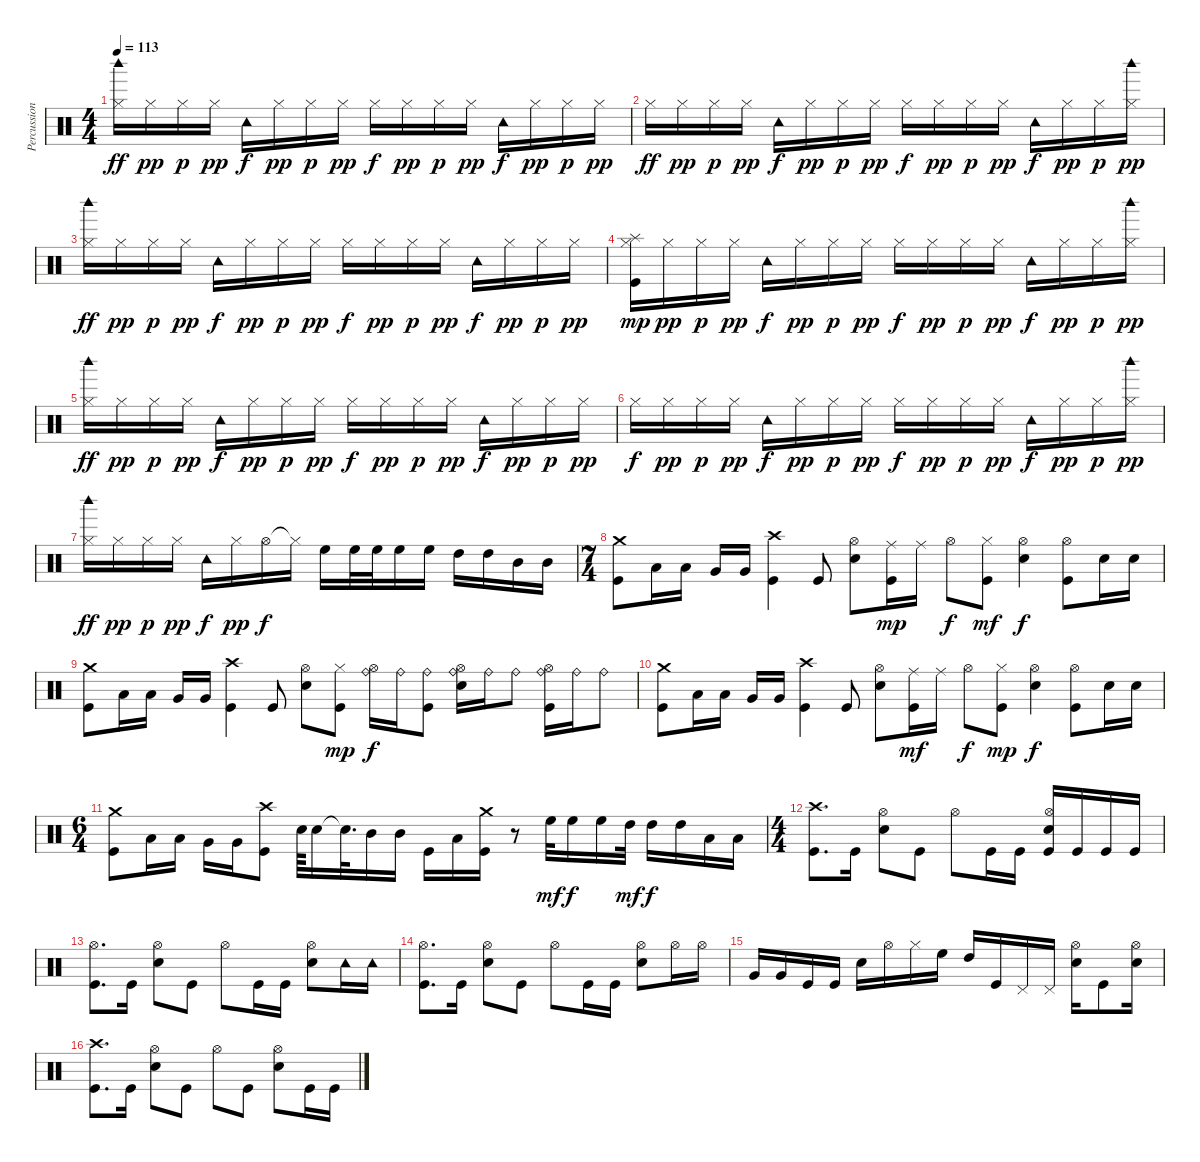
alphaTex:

\track ("Percussioni" "Percussion") {instrument percussion}
\staff {score}
\articulation defaults
\ts (4 4)
\tempo 113
\clef neutral
\ks c
("Woodblock high (hit)" "Hi-Hat (closed)").16{dy ff} "Hi-Hat (closed)".16{dy pp} "Hi-Hat (closed)".16{dy p} "Hi-Hat (closed)".16{dy pp} "Tambourine (hit)".16{dy f} "Hi-Hat (closed)".16{dy pp} "Hi-Hat (closed)".16{dy p} "Hi-Hat (closed)".16{dy pp} "Hi-Hat (closed)".16{dy f} "Hi-Hat (closed)".16{dy pp} "Hi-Hat (closed)".16{dy p} "Hi-Hat (closed)".16{dy pp} "Tambourine (hit)".16{dy f} "Hi-Hat (closed)".16{dy pp} "Hi-Hat (closed)".16{dy p} "Hi-Hat (closed)".16{dy pp} |
"Hi-Hat (closed)".16{dy ff} "Hi-Hat (closed)".16{dy pp} "Hi-Hat (closed)".16{dy p} "Hi-Hat (closed)".16{dy pp} "Tambourine (hit)".16{dy f} "Hi-Hat (closed)".16{dy pp} "Hi-Hat (closed)".16{dy p} "Hi-Hat (closed)".16{dy pp} "Hi-Hat (closed)".16{dy f} "Hi-Hat (closed)".16{dy pp} "Hi-Hat (closed)".16{dy p} "Hi-Hat (closed)".16{dy pp} "Tambourine (hit)".16{dy f} "Hi-Hat (closed)".16{dy pp} "Hi-Hat (closed)".16{dy p} ("Woodblock high (hit)" "Hi-Hat (closed)").16{dy pp} |
("Woodblock high (hit)" "Hi-Hat (closed)").16{dy ff} "Hi-Hat (closed)".16{dy pp} "Hi-Hat (closed)".16{dy p} "Hi-Hat (closed)".16{dy pp} "Tambourine (hit)".16{dy f} "Hi-Hat (closed)".16{dy pp} "Hi-Hat (closed)".16{dy p} "Hi-Hat (closed)".16{dy pp} "Hi-Hat (closed)".16{dy f} "Hi-Hat (closed)".16{dy pp} "Hi-Hat (closed)".16{dy p} "Hi-Hat (closed)".16{dy pp} "Tambourine (hit)".16{dy f} "Hi-Hat (closed)".16{dy pp} "Hi-Hat (closed)".16{dy p} "Hi-Hat (closed)".16{dy pp} |
("Splash (hit)" "Hi-Hat (closed)" "Kick (hit)").16{dy mp} "Hi-Hat (closed)".16{dy pp} "Hi-Hat (closed)".16{dy p} "Hi-Hat (closed)".16{dy pp} "Tambourine (hit)".16{dy f} "Hi-Hat (closed)".16{dy pp} "Hi-Hat (closed)".16{dy p} "Hi-Hat (closed)".16{dy pp} "Hi-Hat (closed)".16{dy f} "Hi-Hat (closed)".16{dy pp} "Hi-Hat (closed)".16{dy p} "Hi-Hat (closed)".16{dy pp} "Tambourine (hit)".16{dy f} "Hi-Hat (closed)".16{dy pp} "Hi-Hat (closed)".16{dy p} ("Woodblock high (hit)" "Hi-Hat (closed)").16{dy pp} |
("Woodblock high (hit)" "Hi-Hat (closed)").16{dy ff} "Hi-Hat (closed)".16{dy pp} "Hi-Hat (closed)".16{dy p} "Hi-Hat (closed)".16{dy pp} "Tambourine (hit)".16{dy f} "Hi-Hat (closed)".16{dy pp} "Hi-Hat (closed)".16{dy p} "Hi-Hat (closed)".16{dy pp} "Hi-Hat (closed)".16{dy f} "Hi-Hat (closed)".16{dy pp} "Hi-Hat (closed)".16{dy p} "Hi-Hat (closed)".16{dy pp} "Tambourine (hit)".16{dy f} "Hi-Hat (closed)".16{dy pp} "Hi-Hat (closed)".16{dy p} "Hi-Hat (closed)".16{dy pp} |
"Hi-Hat (closed)".16{dy f} "Hi-Hat (closed)".16{dy pp} "Hi-Hat (closed)".16{dy p} "Hi-Hat (closed)".16{dy pp} "Tambourine (hit)".16{dy f} "Hi-Hat (closed)".16{dy pp} "Hi-Hat (closed)".16{dy p} "Hi-Hat (closed)".16{dy pp} "Hi-Hat (closed)".16{dy f} "Hi-Hat (closed)".16{dy pp} "Hi-Hat (closed)".16{dy p} "Hi-Hat (closed)".16{dy pp} "Tambourine (hit)".16{dy f} "Hi-Hat (closed)".16{dy pp} "Hi-Hat (closed)".16{dy p} ("Woodblock high (hit)" "Hi-Hat (closed)").16{dy pp} |
("Woodblock high (hit)" "Hi-Hat (closed)").16{dy ff} "Hi-Hat (closed)".16{dy pp} "Hi-Hat (closed)".16{dy p} "Hi-Hat (closed)".16{dy pp} "Tambourine (hit)".16{dy f} "Hi-Hat (closed)".16{dy pp} "Hi-Hat (open)".16{dy f} "Hi-Hat (closed)"{t}.16 "High Floor Tom (hit)".16 "High Floor Tom (hit)".32 "High Floor Tom (hit)".32 "High Floor Tom (hit)".16 "High Floor Tom (hit)".16 "High Tom (hit)".16 "High Tom (hit)".16 "Mid Tom (hit)".16 "Mid Tom (hit)".16 |
\ts (7 4)
("Crash medium (hit)" "Kick (hit)").8 "Low Tom (hit)".16 "Low Tom (hit)".16 "Very Low Tom (hit)".16 "Very Low Tom (hit)".16 ("Crash high (hit)" "Kick (hit)").4 "Kick (hit)".8 ("Hi-Hat (open)" "Snare (hit) 2").8 ("Ride (middle)" "Kick (hit)").16{dy mp} "Ride (middle)".16 "Hi-Hat (open)".8{dy f} ("Hi-Hat (closed)" "Kick (hit)").8{dy mf} ("Hi-Hat (open)" "Snare (hit) 2").4{dy f} ("Hi-Hat (open)" "Kick (hit)").8 "Snare (hit) 2".16 "Snare (hit) 2".16 |
("Crash medium (hit)" "Kick (hit)").8 "Low Tom (hit)".16 "Low Tom (hit)".16 "Very Low Tom (hit)".16 "Very Low Tom (hit)".16 ("Crash high (hit)" "Kick (hit)").4 "Kick (hit)".8 ("Hi-Hat (open)" "Snare (hit) 2").8 ("Hi-Hat (closed)" "Kick (hit)").8{dy mp} ("Hi-Hat (open)" "Ride (bell)").16{dy f} "Ride (bell)".16 ("Ride (bell)" "Kick (hit)").8 ("Hi-Hat (open)" "Ride (bell)" "Snare (hit) 2").16 "Ride (bell)".16 "Ride (bell)".8 ("Hi-Hat (open)" "Ride (bell)" "Kick (hit)").16 "Ride (bell)".16 "Ride (bell)".8 |
("Crash medium (hit)" "Kick (hit)").8 "Low Tom (hit)".16 "Low Tom (hit)".16 "Very Low Tom (hit)".16 "Very Low Tom (hit)".16 ("Crash high (hit)" "Kick (hit)").4 "Kick (hit)".8 ("Hi-Hat (open)" "Snare (hit) 2").8 ("Ride (middle)" "Kick (hit)").16{dy mf} "Ride (middle)".16 "Hi-Hat (open)".8{dy f} ("Hi-Hat (closed)" "Kick (hit)").8{dy mp} ("Hi-Hat (open)" "Snare (hit) 2").4{dy f} ("Hi-Hat (open)" "Kick (hit)").8 "Snare (hit) 2".16 "Snare (hit) 2".16 |
\ts (6 4)
("Crash medium (hit)" "Kick (hit)").8 "Low Tom (hit)".16 "Low Tom (hit)".16 "Very Low Tom (hit)".16 "Very Low Tom (hit)".16 ("Crash high (hit)" "Kick (hit)").8 "Snare (hit) 2".64 "Snare (hit) 2".16 "Snare (hit)"{t}.32{d} "Mid Tom (hit)".16 "Mid Tom (hit)".16 "Kick (hit)".16 "Low Tom (hit)".16 ("Crash medium (hit)" "Kick (hit)").16 r.8 "High Floor Tom (hit)".32{dy mf} "High Floor Tom (hit)".16{dy f} "High Floor Tom (hit)".16 "High Tom (hit)".32{dy mf} "High Tom (hit)".16{dy f} "High Tom (hit)".16 "Low Tom (hit)".16 "Low Tom (hit)".16 |
\ts (4 4)
("Crash high (hit)" "Kick (hit)").8{d} "Kick (hit)".16 ("Hi-Hat (open)" "Snare (hit) 2").8 "Kick (hit)".8 "Hi-Hat (open)".8 "Kick (hit)".16 "Kick (hit)".16 ("Hi-Hat (open)" "Snare (hit) 2" "Kick (hit)").16 "Kick (hit)".16 "Kick (hit)".16 "Kick (hit)".16 |
("Hi-Hat (open)" "Kick (hit)").8{d} "Kick (hit)".16 ("Hi-Hat (open)" "Snare (hit) 2").8 "Kick (hit)".8 "Hi-Hat (open)".8 "Kick (hit)".16 "Kick (hit)".16 ("Hi-Hat (open)" "Snare (hit) 2").8 "Tambourine (hit)".16 "Tambourine (hit)".16 |
("Hi-Hat (open)" "Kick (hit)").8{d} "Kick (hit)".16 ("Hi-Hat (open)" "Snare (hit) 2").8 "Kick (hit)".8 "Hi-Hat (open)".8 "Kick (hit)".16 "Kick (hit)".16 ("Hi-Hat (open)" "Snare (hit) 2").8 "Hi-Hat (open)".16 "Hi-Hat (open)".16 |
"Very Low Tom (hit)".16 "Very Low Tom (hit)".16 "Kick (hit)".16 "Kick (hit)".16 "Snare (hit) 2".16 "Hi-Hat (open)".16 "Hi-Hat (closed)".16 "High Floor Tom (hit)".16 "High Tom (hit)".16 "Kick (hit)".16 "Pedal Hi-Hat (hit)".16 "Pedal Hi-Hat (hit)".16 ("Hi-Hat (open)" "Snare (hit) 2").16 "Kick (hit)".8 ("Hi-Hat (open)" "Snare (hit) 2").16 |
("Crash high (hit)" "Kick (hit)").8{d} "Kick (hit)".16 ("Hi-Hat (open)" "Snare (hit) 2").8 "Kick (hit)".8 "Hi-Hat (open)".8 "Kick (hit)".8 ("Hi-Hat (open)" "Snare (hit) 2").8 "Kick (hit)".16 "Kick (hit)".16
